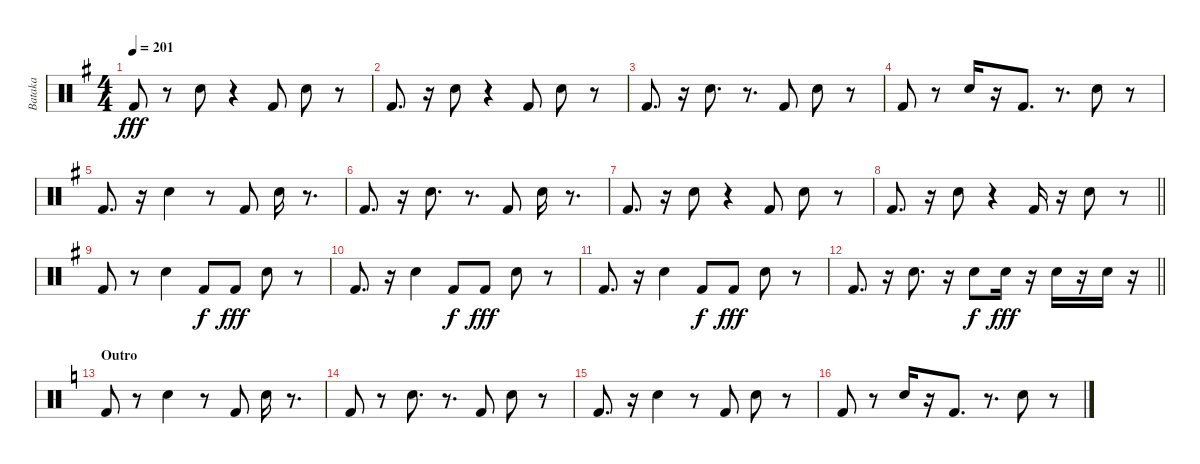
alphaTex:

\track ("Bataka" "Bataka") {instrument percussion}
\staff {score}
\articulation defaults
\ts (4 4)
\tempo 201
\clef neutral
\ks g "Kick (hit) 2".8{dy fff}
r.8 "Electric Snare (hit)".8 r.4 "Kick (hit) 2".8 "Electric Snare (hit)".8 r.8 |
"Kick (hit) 2".8{d} r.16 "Electric Snare (hit)".8 r.4 "Kick (hit) 2".8 "Electric Snare (hit)".8 r.8 |
"Kick (hit) 2".8{d} r.16 "Electric Snare (hit)".8{d} r.8{d} "Kick (hit) 2".8 "Electric Snare (hit)".8 r.8 |
"Kick (hit) 2".8 r.8 "Electric Snare (hit)".16 r.16 "Kick (hit) 2".8{d} r.8{d} "Electric Snare (hit)".8 r.8 |
"Kick (hit) 2".8{d} r.16 "Electric Snare (hit)".4 r.8 "Kick (hit) 2".8 "Electric Snare (hit)".16 r.8{d} |
"Kick (hit) 2".8{d} r.16 "Electric Snare (hit)".8{d} r.8{d} "Kick (hit) 2".8 "Electric Snare (hit)".16 r.8{d} |
"Kick (hit) 2".8{d} r.16 "Electric Snare (hit)".8 r.4 "Kick (hit) 2".8 "Electric Snare (hit)".8 r.8 |
\barLineRight lightlight "Kick (hit) 2".8{d}
r.16 "Electric Snare (hit)".8 r.4 "Kick (hit) 2".16{volume 13} r.16 "Electric Snare (hit)".8{volume 13} r.8 |
"Kick (hit) 2".8{volume 13} r.8 "Electric Snare (hit)".4{volume 12} "Kick (hit) 2".8{dy f volume 12} "Kick (hit) 2".8{dy fff volume 12} "Electric Snare (hit)".8{volume 12} r.8 |
"Kick (hit) 2".8{d volume 12} r.16 "Electric Snare (hit)".4{volume 11} "Kick (hit) 2".8{dy f volume 11} "Kick (hit) 2".8{dy fff volume 11} "Electric Snare (hit)".8{volume 10} r.8 |
"Kick (hit) 2".8{d volume 10} r.16 "Electric Snare (hit)".4{volume 10} "Kick (hit) 2".8{dy f volume 10} "Kick (hit) 2".8{dy fff volume 10} "Electric Snare (hit)".8{volume 10} r.8 |
\barLineRight lightlight "Kick (hit) 2".8{d volume 9}
r.16 "Electric Snare (hit)".8{d volume 9} r.16 "Electric Snare (hit)".8{dy f volume 9} "Electric Snare (hit)".16{dy fff volume 9} r.16 "Electric Snare (hit)".16 r.16 "Electric Snare (hit)".16{volume 9} r.16 |
\section ("" "Outro")
\ks c "Kick (hit) 2".8{volume 8}
r.8 "Electric Snare (hit)".4{volume 8} r.8 "Kick (hit) 2".8{volume 8} "Electric Snare (hit)".16{volume 8} r.8{d} |
"Kick (hit) 2".8{volume 8} r.8 "Electric Snare (hit)".8{d volume 7} r.8{d} "Kick (hit) 2".8{volume 7} "Electric Snare (hit)".8{volume 6} r.8 |
"Kick (hit) 2".8{d volume 6} r.16 "Electric Snare (hit)".4{volume 6} r.8 "Kick (hit) 2".8{volume 5} "Electric Snare (hit)".8{volume 5} r.8 |
"Kick (hit) 2".8{volume 4} r.8 "Electric Snare (hit)".16{volume 4} r.16 "Kick (hit) 2".8{d volume 4} r.8{d} "Electric Snare (hit)".8{volume 3} r.8
